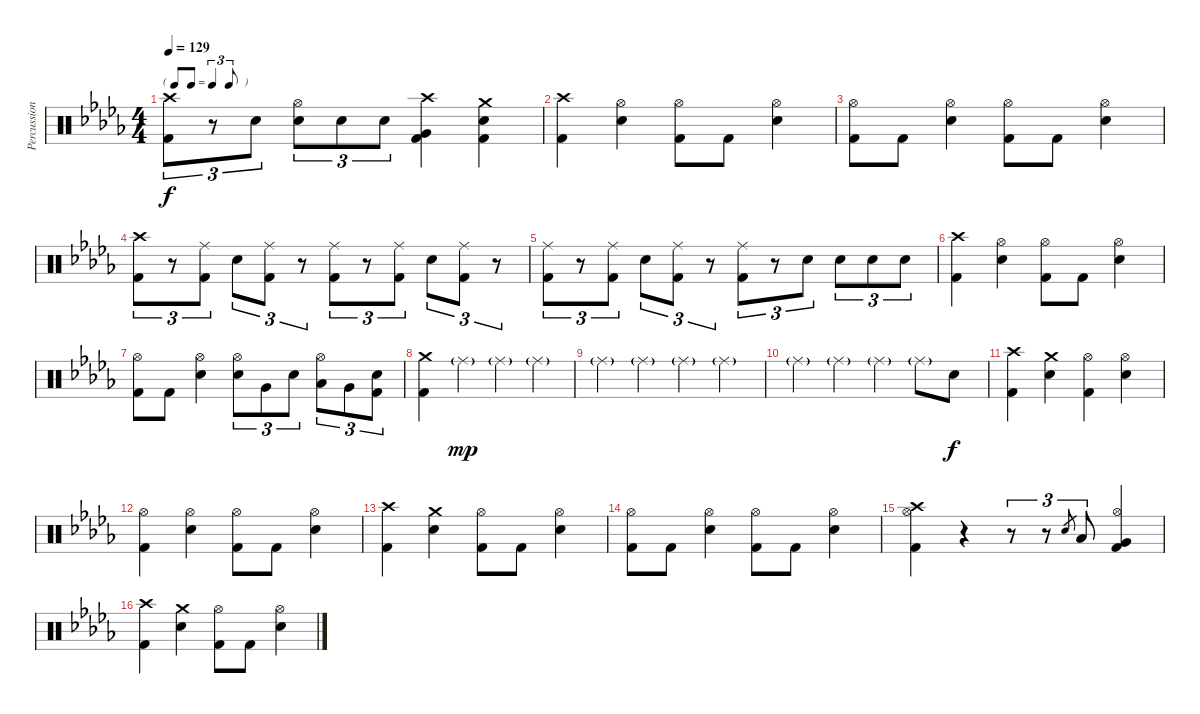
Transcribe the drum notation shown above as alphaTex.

\track ("Percussion" "Percussion") {instrument percussion}
\staff {score}
\articulation defaults
\ts (4 4)
\tf triplet8th
\tempo 129
\clef neutral
\ks db
("Crash high (hit)" "Kick (hit) 2").8{tu (3 2) dy f} r.8{tu (3 2)} "Electric Snare (hit)".8{tu (3 2)} ("Hi-Hat (open)" "Electric Snare (hit)").8{tu (3 2)} "Electric Snare (hit)".8{tu (3 2)} "Electric Snare (hit)".8{tu (3 2)} ("Crash high (hit)" "Very Low Tom (hit)" "Kick (hit) 2").4 ("Crash medium (hit)" "Electric Snare (hit)" "Kick (hit) 2").4 |
("Crash high (hit)" "Kick (hit) 2").4 ("Hi-Hat (open)" "Electric Snare (hit)").4 ("Hi-Hat (open)" "Kick (hit) 2").8 "Kick (hit) 2".8 ("Hi-Hat (open)" "Electric Snare (hit)").4 |
("Hi-Hat (open)" "Kick (hit) 2").8 "Kick (hit) 2".8 ("Hi-Hat (open)" "Electric Snare (hit)").4 ("Hi-Hat (open)" "Kick (hit) 2").8 "Kick (hit) 2".8 ("Hi-Hat (open)" "Electric Snare (hit)").4 |
("Crash high (hit)" "Kick (hit) 2").8{tu (3 2)} r.8{tu (3 2)} ("Ride (middle)" "Kick (hit) 2").8{tu (3 2)} "Electric Snare (hit)".8{tu (3 2)} ("Ride (middle)" "Kick (hit) 2").8{tu (3 2)} r.8{tu (3 2)} ("Ride (middle)" "Kick (hit) 2").8{tu (3 2)} r.8{tu (3 2)} ("Ride (middle)" "Kick (hit) 2").8{tu (3 2)} "Electric Snare (hit)".8{tu (3 2)} ("Ride (middle)" "Kick (hit) 2").8{tu (3 2)} r.8{tu (3 2)} |
("Ride (middle)" "Kick (hit) 2").8{tu (3 2)} r.8{tu (3 2)} ("Ride (middle)" "Kick (hit) 2").8{tu (3 2)} "Electric Snare (hit)".8{tu (3 2)} ("Ride (middle)" "Kick (hit) 2").8{tu (3 2)} r.8{tu (3 2)} ("Ride (middle)" "Kick (hit) 2").8{tu (3 2)} r.8{tu (3 2)} "Electric Snare (hit)".8{tu (3 2)} "Electric Snare (hit)".8{tu (3 2)} "Electric Snare (hit)".8{tu (3 2)} "Electric Snare (hit)".8{tu (3 2)} |
("Crash high (hit)" "Kick (hit) 2").4 ("Hi-Hat (open)" "Electric Snare (hit)").4 ("Hi-Hat (open)" "Kick (hit) 2").8 "Kick (hit) 2".8 ("Hi-Hat (open)" "Electric Snare (hit)").4 |
("Hi-Hat (open)" "Kick (hit) 2").8 "Kick (hit) 2".8 ("Hi-Hat (open)" "Electric Snare (hit)").4 ("Hi-Hat (open)" "Electric Snare (hit)").8{tu (3 2)} "Very Low Tom (hit)".8{tu (3 2)} "Electric Snare (hit)".8{tu (3 2)} ("Hi-Hat (open)" "Low Tom (hit)").8{tu (3 2)} "Very Low Tom (hit)".8{tu (3 2)} ("Electric Snare (hit)" "Kick (hit) 2").8{tu (3 2)} |
("Crash medium (hit)" "Kick (hit) 2").4 "Ride (middle)"{g}.4{dy mp} "Ride (middle)"{g}.4 "Ride (middle)"{g}.4 |
"Ride (middle)"{g}.4 "Ride (middle)"{g}.4 "Ride (middle)"{g}.4 "Ride (middle)"{g}.4 |
"Ride (middle)"{g}.4 "Ride (middle)"{g}.4 "Ride (middle)"{g}.4 "Ride (middle)"{g}.8 "Electric Snare (hit)".8{dy f} |
("Crash high (hit)" "Kick (hit) 2").4 ("Crash medium (hit)" "Electric Snare (hit)").4 ("Hi-Hat (open)" "Kick (hit) 2").4 ("Hi-Hat (open)" "Electric Snare (hit)").4 |
("Hi-Hat (open)" "Kick (hit) 2").4 ("Hi-Hat (open)" "Electric Snare (hit)").4 ("Hi-Hat (open)" "Kick (hit) 2").8 "Kick (hit) 2".8 ("Hi-Hat (open)" "Electric Snare (hit)").4 |
("Crash high (hit)" "Kick (hit) 2").4 ("Crash medium (hit)" "Electric Snare (hit)").4 ("Hi-Hat (open)" "Kick (hit) 2").8 "Kick (hit) 2".8 ("Hi-Hat (open)" "Electric Snare (hit)").4 |
("Hi-Hat (open)" "Kick (hit) 2").8 "Kick (hit) 2".8 ("Hi-Hat (open)" "Electric Snare (hit)").4 ("Hi-Hat (open)" "Kick (hit) 2").8 "Kick (hit) 2".8 ("Hi-Hat (open)" "Electric Snare (hit)").4 |
("Crash high (hit)" "Hi-Hat (open)" "Kick (hit) 2").4 r.4 r.8{tu (3 2)} r.8{tu (3 2)} "Electric Snare (hit)".8{gr} "Low Tom (hit)".8{tu (3 2)} ("Hi-Hat (open)" "Very Low Tom (hit)" "Kick (hit) 2").4 |
("Crash high (hit)" "Kick (hit) 2").4 ("Crash medium (hit)" "Electric Snare (hit)").4 ("Hi-Hat (open)" "Kick (hit) 2").8 "Kick (hit) 2".8 ("Hi-Hat (open)" "Electric Snare (hit)").4
